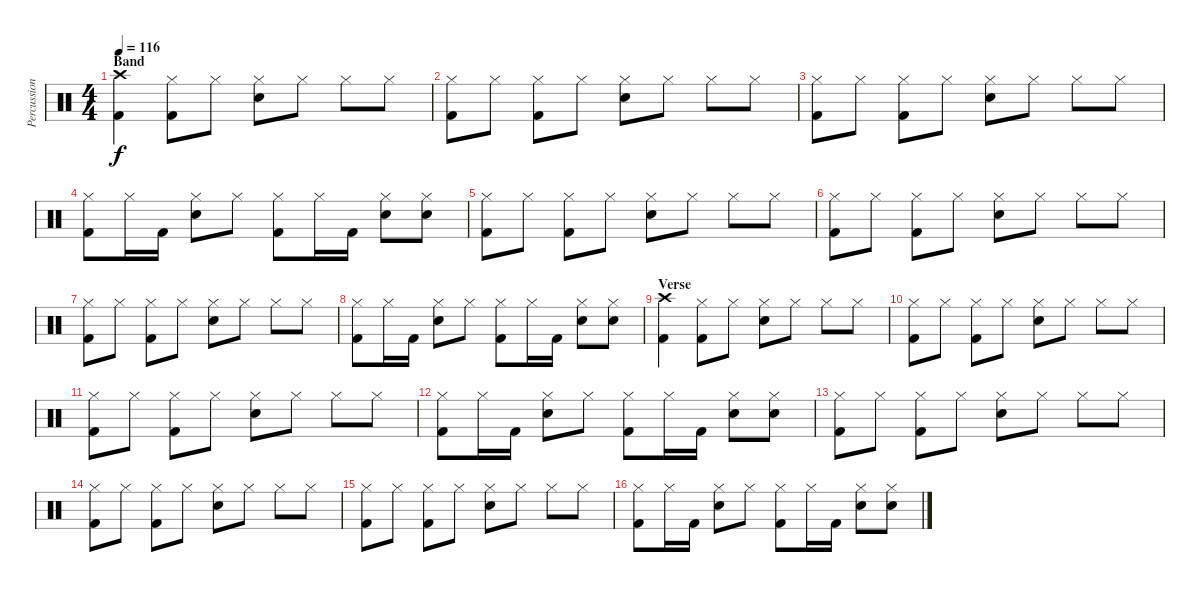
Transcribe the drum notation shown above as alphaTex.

\track ("Percussion" "Percussion") {instrument percussion}
\staff {score}
\articulation defaults
\ts (4 4)
\section ("" "Band")
\tempo 116
\clef neutral
\ks c
("Kick (hit) 2" "Crash high (hit)").4{dy f} ("Kick (hit) 2" "Hi-Hat (closed)").8 "Hi-Hat (closed)".8 ("Electric Snare (hit)" "Hi-Hat (closed)").8 "Hi-Hat (closed)".8 "Hi-Hat (closed)".8 "Hi-Hat (closed)".8 |
("Kick (hit) 2" "Hi-Hat (closed)").8 "Hi-Hat (closed)".8 ("Kick (hit) 2" "Hi-Hat (closed)").8 "Hi-Hat (closed)".8 ("Electric Snare (hit)" "Hi-Hat (closed)").8 "Hi-Hat (closed)".8 "Hi-Hat (closed)".8 "Hi-Hat (closed)".8 |
("Kick (hit) 2" "Hi-Hat (closed)").8 "Hi-Hat (closed)".8 ("Kick (hit) 2" "Hi-Hat (closed)").8 "Hi-Hat (closed)".8 ("Electric Snare (hit)" "Hi-Hat (closed)").8 "Hi-Hat (closed)".8 "Hi-Hat (closed)".8 "Hi-Hat (closed)".8 |
("Kick (hit) 2" "Hi-Hat (closed)").8 "Hi-Hat (closed)".16 "Kick (hit) 2".16 ("Electric Snare (hit)" "Hi-Hat (closed)").8 "Hi-Hat (closed)".8 ("Kick (hit) 2" "Hi-Hat (closed)").8 "Hi-Hat (closed)".16 "Kick (hit) 2".16 ("Electric Snare (hit)" "Hi-Hat (closed)").8 ("Electric Snare (hit)" "Hi-Hat (closed)").8 |
("Kick (hit) 2" "Hi-Hat (closed)").8 "Hi-Hat (closed)".8 ("Kick (hit) 2" "Hi-Hat (closed)").8 "Hi-Hat (closed)".8 ("Electric Snare (hit)" "Hi-Hat (closed)").8 "Hi-Hat (closed)".8 "Hi-Hat (closed)".8 "Hi-Hat (closed)".8 |
("Kick (hit) 2" "Hi-Hat (closed)").8 "Hi-Hat (closed)".8 ("Kick (hit) 2" "Hi-Hat (closed)").8 "Hi-Hat (closed)".8 ("Electric Snare (hit)" "Hi-Hat (closed)").8 "Hi-Hat (closed)".8 "Hi-Hat (closed)".8 "Hi-Hat (closed)".8 |
("Kick (hit) 2" "Hi-Hat (closed)").8 "Hi-Hat (closed)".8 ("Kick (hit) 2" "Hi-Hat (closed)").8 "Hi-Hat (closed)".8 ("Electric Snare (hit)" "Hi-Hat (closed)").8 "Hi-Hat (closed)".8 "Hi-Hat (closed)".8 "Hi-Hat (closed)".8 |
("Kick (hit) 2" "Hi-Hat (closed)").8 "Hi-Hat (closed)".16 "Kick (hit) 2".16 ("Electric Snare (hit)" "Hi-Hat (closed)").8 "Hi-Hat (closed)".8 ("Kick (hit) 2" "Hi-Hat (closed)").8 "Hi-Hat (closed)".16 "Kick (hit) 2".16 ("Electric Snare (hit)" "Hi-Hat (closed)").8 ("Electric Snare (hit)" "Hi-Hat (closed)").8 |
\section ("" "Verse")
("Kick (hit) 2" "Crash high (hit)").4 ("Kick (hit) 2" "Hi-Hat (closed)").8 "Hi-Hat (closed)".8 ("Electric Snare (hit)" "Hi-Hat (closed)").8 "Hi-Hat (closed)".8 "Hi-Hat (closed)".8 "Hi-Hat (closed)".8 |
("Kick (hit) 2" "Hi-Hat (closed)").8 "Hi-Hat (closed)".8 ("Kick (hit) 2" "Hi-Hat (closed)").8 "Hi-Hat (closed)".8 ("Electric Snare (hit)" "Hi-Hat (closed)").8 "Hi-Hat (closed)".8 "Hi-Hat (closed)".8 "Hi-Hat (closed)".8 |
("Kick (hit) 2" "Hi-Hat (closed)").8 "Hi-Hat (closed)".8 ("Kick (hit) 2" "Hi-Hat (closed)").8 "Hi-Hat (closed)".8 ("Electric Snare (hit)" "Hi-Hat (closed)").8 "Hi-Hat (closed)".8 "Hi-Hat (closed)".8 "Hi-Hat (closed)".8 |
("Kick (hit) 2" "Hi-Hat (closed)").8 "Hi-Hat (closed)".16 "Kick (hit) 2".16 ("Electric Snare (hit)" "Hi-Hat (closed)").8 "Hi-Hat (closed)".8 ("Kick (hit) 2" "Hi-Hat (closed)").8 "Hi-Hat (closed)".16 "Kick (hit) 2".16 ("Electric Snare (hit)" "Hi-Hat (closed)").8 ("Electric Snare (hit)" "Hi-Hat (closed)").8 |
("Kick (hit) 2" "Hi-Hat (closed)").8 "Hi-Hat (closed)".8 ("Kick (hit) 2" "Hi-Hat (closed)").8 "Hi-Hat (closed)".8 ("Electric Snare (hit)" "Hi-Hat (closed)").8 "Hi-Hat (closed)".8 "Hi-Hat (closed)".8 "Hi-Hat (closed)".8 |
("Kick (hit) 2" "Hi-Hat (closed)").8 "Hi-Hat (closed)".8 ("Kick (hit) 2" "Hi-Hat (closed)").8 "Hi-Hat (closed)".8 ("Electric Snare (hit)" "Hi-Hat (closed)").8 "Hi-Hat (closed)".8 "Hi-Hat (closed)".8 "Hi-Hat (closed)".8 |
("Kick (hit) 2" "Hi-Hat (closed)").8 "Hi-Hat (closed)".8 ("Kick (hit) 2" "Hi-Hat (closed)").8 "Hi-Hat (closed)".8 ("Electric Snare (hit)" "Hi-Hat (closed)").8 "Hi-Hat (closed)".8 "Hi-Hat (closed)".8 "Hi-Hat (closed)".8 |
("Kick (hit) 2" "Hi-Hat (closed)").8 "Hi-Hat (closed)".16 "Kick (hit) 2".16 ("Electric Snare (hit)" "Hi-Hat (closed)").8 "Hi-Hat (closed)".8 ("Kick (hit) 2" "Hi-Hat (closed)").8 "Hi-Hat (closed)".16 "Kick (hit) 2".16 ("Electric Snare (hit)" "Hi-Hat (closed)").8 ("Electric Snare (hit)" "Hi-Hat (closed)").8
